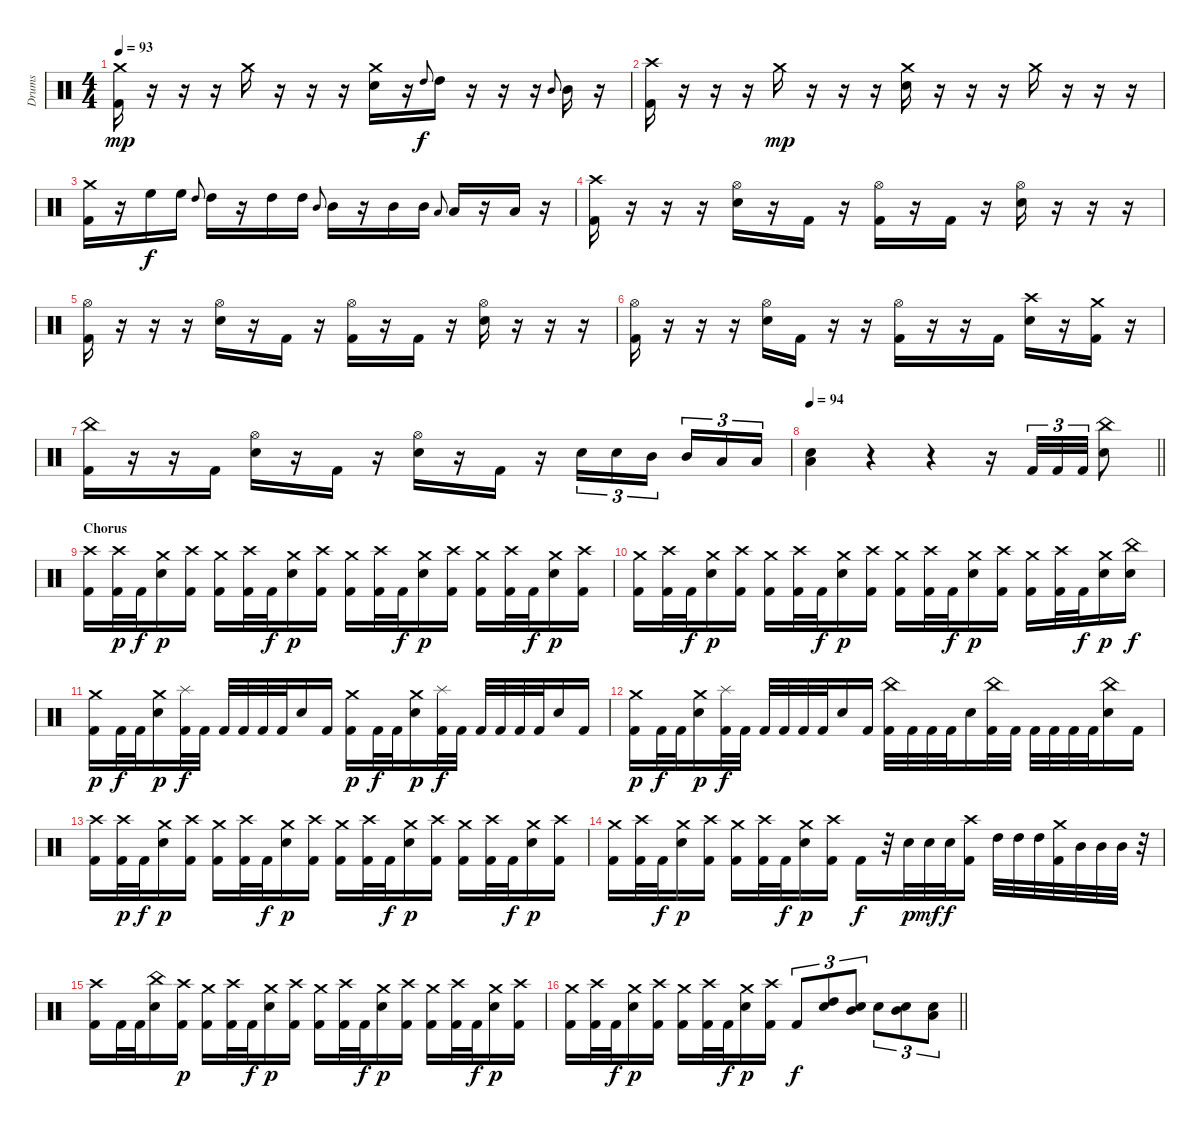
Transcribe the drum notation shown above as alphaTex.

\track ("Drums" "Drums") {instrument percussion}
\staff {score}
\articulation defaults
\ts (4 4)
\tempo 93
\clef neutral
\ks c
("Crash medium (hit)" "Kick (hit) 2").16{dy mp} r.16 r.16 r.16 "Crash medium (hit)".16 r.16 r.16 r.16 ("Crash medium (hit)" "Snare (hit) 2").16 r.16 "High Tom (hit)".8{gr onbeat dy f} "High Tom (hit)".16 r.16 r.16 r.16 "Mid Tom (hit)".8{gr onbeat} "Mid Tom (hit)".16 r.16 |
("Crash high (hit)" "Kick (hit) 2").16 r.16 r.16 r.16 "Crash medium (hit)".16{dy mp} r.16 r.16 r.16 ("Crash medium (hit)" "Snare (hit) 2").16 r.16 r.16 r.16 "Crash medium (hit)".16 r.16 r.16 r.16 |
("Crash medium (hit)" "Kick (hit) 2").16 r.16 "High Floor Tom (hit)".16{dy f} "High Floor Tom (hit)".16 "High Tom (hit)".8{gr onbeat} "High Tom (hit)".16 r.16 "High Tom (hit)".16 "High Tom (hit)".16 "Mid Tom (hit)".8{gr onbeat} "Mid Tom (hit)".16 r.16 "Mid Tom (hit)".16 "Mid Tom (hit)".16 "Low Tom (hit)".8{gr onbeat} "Low Tom (hit)".16 r.16 "Low Tom (hit)".16 r.16 |
("Crash high (hit)" "Kick (hit) 2").16 r.16 r.16 r.16 ("Hi-Hat (open)" "Snare (hit) 2").16 r.16 "Kick (hit) 2".16 r.16 ("Hi-Hat (open)" "Kick (hit) 2").16 r.16 "Kick (hit) 2".16 r.16 ("Hi-Hat (open)" "Snare (hit) 2").16 r.16 r.16 r.16 |
("Hi-Hat (open)" "Kick (hit) 2").16 r.16 r.16 r.16 ("Hi-Hat (open)" "Snare (hit) 2").16 r.16 "Kick (hit) 2".16 r.16 ("Hi-Hat (open)" "Kick (hit) 2").16 r.16 "Kick (hit) 2".16 r.16 ("Hi-Hat (open)" "Snare (hit) 2").16 r.16 r.16 r.16 |
("Hi-Hat (open)" "Kick (hit) 2").16 r.16 r.16 r.16 ("Hi-Hat (open)" "Snare (hit) 2").16 "Kick (hit) 2".16 r.16 r.16 ("Hi-Hat (open)" "Kick (hit) 2").16 r.16 r.16 "Kick (hit) 2".16 ("Crash high (hit)" "Snare (hit) 2").16 r.16 ("Kick (hit) 2" "Crash medium (hit)").16 r.16 |
("China (hit)" "Kick (hit) 2").16 r.16 r.16 "Kick (hit) 2".16 ("Snare (hit) 2" "Hi-Hat (open)").16 r.16 "Kick (hit) 2".16 r.16 ("Snare (hit) 2" "Hi-Hat (open)").16 r.16 "Kick (hit) 2".16 r.16 "Snare (hit) 2".16{tu (3 2)} "Snare (hit) 2".16{tu (3 2)} "Mid Tom (hit)".16{tu (3 2) beam splitsecondary} "Mid Tom (hit)".16{tu (3 2)} "Low Tom (hit)".16{tu (3 2)} "Low Tom (hit)".16{tu (3 2)} |
\tempo 94
\barLineRight lightlight
("Snare (hit) 2" "Low Tom (hit)").4 r.4 r.4 r.16 "Kick (hit) 2".32{tu (3 2)} "Kick (hit) 2".32{tu (3 2)} "Kick (hit) 2".32{tu (3 2)} ("Snare (hit) 2" "China (hit)").8 |
\section ("" "Chorus")
("Kick (hit) 2" "Crash high (hit)").16 ("Kick (hit) 2" "Crash high (hit)").32{dy p} "Kick (hit) 2".32{dy f} ("Snare (hit) 2" "Crash medium (hit)").16{dy p} ("Kick (hit) 2" "Crash high (hit)").16 ("Kick (hit) 2" "Crash medium (hit)").16 ("Kick (hit) 2" "Crash high (hit)").32 "Kick (hit) 2".32{dy f} ("Snare (hit) 2" "Crash medium (hit)").16{dy p} ("Kick (hit) 2" "Crash high (hit)").16 ("Kick (hit) 2" "Crash medium (hit)").16 ("Kick (hit) 2" "Crash high (hit)").32 "Kick (hit) 2".32{dy f} ("Snare (hit) 2" "Crash medium (hit)").16{dy p} ("Kick (hit) 2" "Crash high (hit)").16 ("Kick (hit) 2" "Crash medium (hit)").16 ("Kick (hit) 2" "Crash high (hit)").32 "Kick (hit) 2".32{dy f} ("Snare (hit) 2" "Crash medium (hit)").16{dy p} ("Kick (hit) 2" "Crash high (hit)").16 |
("Kick (hit) 2" "Crash medium (hit)").16 ("Kick (hit) 2" "Crash high (hit)").32 "Kick (hit) 2".32{dy f} ("Snare (hit) 2" "Crash medium (hit)").16{dy p} ("Kick (hit) 2" "Crash high (hit)").16 ("Kick (hit) 2" "Crash medium (hit)").16 ("Kick (hit) 2" "Crash high (hit)").32 "Kick (hit) 2".32{dy f} ("Snare (hit) 2" "Crash medium (hit)").16{dy p} ("Kick (hit) 2" "Crash high (hit)").16 ("Kick (hit) 2" "Crash medium (hit)").16 ("Kick (hit) 2" "Crash high (hit)").32 "Kick (hit) 2".32{dy f} ("Snare (hit) 2" "Crash medium (hit)").16{dy p} ("Kick (hit) 2" "Crash high (hit)").16 ("Kick (hit) 2" "Crash medium (hit)").16 ("Kick (hit) 2" "Crash high (hit)").32 "Kick (hit) 2".32{dy f} ("Snare (hit) 2" "Crash medium (hit)").16{dy p} ("China (hit)" "Snare (hit) 2").16{dy f} |
("Kick (hit) 2" "Crash medium (hit)").16{dy p} "Kick (hit) 2".32{dy f} "Kick (hit) 2".32 ("Snare (hit) 2" "Crash medium (hit)").16{dy p} ("Kick (hit) 2" "Splash (hit)").32{dy f} "Kick (hit) 2".32 "Kick (hit) 2".32 "Kick (hit) 2".32 "Kick (hit) 2".32 "Kick (hit) 2".32 "Snare (hit) 2".16 "Kick (hit) 2".16 ("Kick (hit) 2" "Crash medium (hit)").16{dy p} "Kick (hit) 2".32{dy f} "Kick (hit) 2".32 ("Snare (hit) 2" "Crash medium (hit)").16{dy p} ("Kick (hit) 2" "Splash (hit)").32{dy f} "Kick (hit) 2".32 "Kick (hit) 2".32 "Kick (hit) 2".32 "Kick (hit) 2".32 "Kick (hit) 2".32 "Snare (hit) 2".16 "Kick (hit) 2".16 |
("Kick (hit) 2" "Crash medium (hit)").16{dy p} "Kick (hit) 2".32{dy f} "Kick (hit) 2".32 ("Snare (hit) 2" "Crash medium (hit)").16{dy p} ("Kick (hit) 2" "Splash (hit)").32{dy f} "Kick (hit) 2".32 "Kick (hit) 2".32 "Kick (hit) 2".32 "Kick (hit) 2".32 "Kick (hit) 2".32 "Snare (hit) 2".16 "Kick (hit) 2".16 ("Kick (hit) 2" "China (hit)").32 "Kick (hit) 2".32 "Kick (hit) 2".32 "Kick (hit) 2".32 "Snare (hit) 2".16 ("Kick (hit) 2" "China (hit)").32 "Kick (hit) 2".32 "Kick (hit) 2".32 "Kick (hit) 2".32 "Kick (hit) 2".32 "Kick (hit) 2".32 ("Snare (hit) 2" "China (hit)").16 "Kick (hit) 2".16 |
("Kick (hit) 2" "Crash high (hit)").16 ("Kick (hit) 2" "Crash high (hit)").32{dy p} "Kick (hit) 2".32{dy f} ("Snare (hit) 2" "Crash medium (hit)").16{dy p} ("Kick (hit) 2" "Crash high (hit)").16 ("Kick (hit) 2" "Crash medium (hit)").16 ("Kick (hit) 2" "Crash high (hit)").32 "Kick (hit) 2".32{dy f} ("Snare (hit) 2" "Crash medium (hit)").16{dy p} ("Kick (hit) 2" "Crash high (hit)").16 ("Kick (hit) 2" "Crash medium (hit)").16 ("Kick (hit) 2" "Crash high (hit)").32 "Kick (hit) 2".32{dy f} ("Snare (hit) 2" "Crash medium (hit)").16{dy p} ("Kick (hit) 2" "Crash high (hit)").16 ("Kick (hit) 2" "Crash medium (hit)").16 ("Kick (hit) 2" "Crash high (hit)").32 "Kick (hit) 2".32{dy f} ("Snare (hit) 2" "Crash medium (hit)").16{dy p} ("Kick (hit) 2" "Crash high (hit)").16 |
("Kick (hit) 2" "Crash medium (hit)").16 ("Kick (hit) 2" "Crash high (hit)").32 "Kick (hit) 2".32{dy f} ("Snare (hit) 2" "Crash medium (hit)").16{dy p} ("Kick (hit) 2" "Crash high (hit)").16 ("Kick (hit) 2" "Crash medium (hit)").16 ("Kick (hit) 2" "Crash high (hit)").32 "Kick (hit) 2".32{dy f} ("Snare (hit) 2" "Crash medium (hit)").16{dy p} ("Kick (hit) 2" "Crash high (hit)").16 "Kick (hit) 2".16{dy f} r.32 "Snare (hit) 2".32{dy p} "Snare (hit) 2".32{dy mf} "Snare (hit) 2".32{dy f} ("Kick (hit) 2" "Crash high (hit)").16 "High Tom (hit)".32 "High Tom (hit)".32 "High Tom (hit)".32 ("Crash medium (hit)" "Kick (hit) 2").32 "Mid Tom (hit)".32 "Mid Tom (hit)".32 "Mid Tom (hit)".32 r.32 |
("Kick (hit) 2" "Crash high (hit)").16 "Kick (hit) 2".32 "Kick (hit) 2".32 ("Snare (hit) 2" "China (hit)").16 ("Kick (hit) 2" "Crash high (hit)").16{dy p} ("Kick (hit) 2" "Crash medium (hit)").16 ("Kick (hit) 2" "Crash high (hit)").32 "Kick (hit) 2".32{dy f} ("Snare (hit) 2" "Crash medium (hit)").16{dy p} ("Kick (hit) 2" "Crash high (hit)").16 ("Kick (hit) 2" "Crash medium (hit)").16 ("Kick (hit) 2" "Crash high (hit)").32 "Kick (hit) 2".32{dy f} ("Snare (hit) 2" "Crash medium (hit)").16{dy p} ("Kick (hit) 2" "Crash high (hit)").16 ("Kick (hit) 2" "Crash medium (hit)").16 ("Kick (hit) 2" "Crash high (hit)").32 "Kick (hit) 2".32{dy f} ("Snare (hit) 2" "Crash medium (hit)").16{dy p} ("Kick (hit) 2" "Crash high (hit)").16 |
\barLineRight lightlight
("Kick (hit) 2" "Crash medium (hit)").16 ("Kick (hit) 2" "Crash high (hit)").32 "Kick (hit) 2".32{dy f} ("Snare (hit) 2" "Crash medium (hit)").16{dy p} ("Kick (hit) 2" "Crash high (hit)").16 ("Kick (hit) 2" "Crash medium (hit)").16 ("Kick (hit) 2" "Crash high (hit)").32 "Kick (hit) 2".32{dy f} ("Snare (hit) 2" "Crash medium (hit)").16{dy p} ("Kick (hit) 2" "Crash high (hit)").16 "Kick (hit) 2".8{tu (3 2) dy f} ("Snare (hit) 2" "High Tom (hit)").8{tu (3 2)} ("Snare (hit) 2" "Mid Tom (hit)").8{tu (3 2)} "Snare (hit) 2".8{tu (3 2)} ("Snare (hit) 2" "Mid Tom (hit)").8{tu (3 2)} ("Snare (hit) 2" "Low Tom (hit)").8{tu (3 2)}
